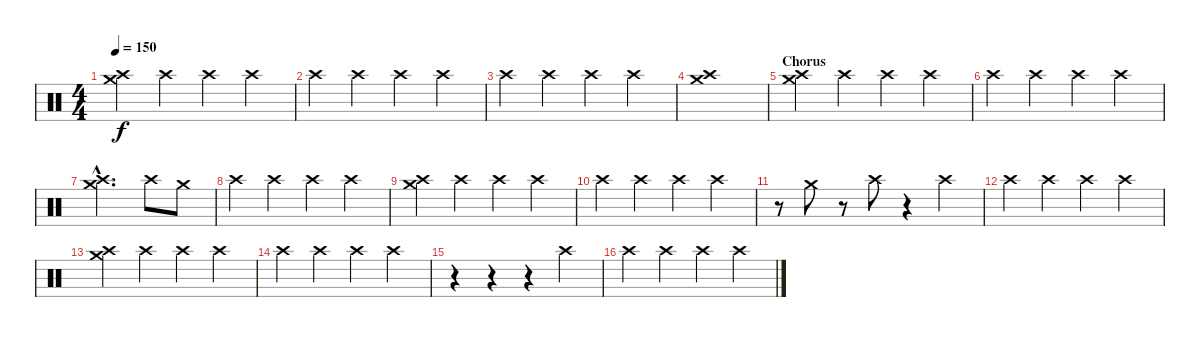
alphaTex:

\track "" {instrument percussion}
\staff {score}
\articulation defaults
\ts (4 4)
\tempo 150
\clef neutral
\ks c
("Crash medium (hit)" "Crash high (hit)").4{dy f} "Crash high (hit)".4 "Crash high (hit)".4 "Crash high (hit)".4 |
"Crash high (hit)".4 "Crash high (hit)".4 "Crash high (hit)".4 "Crash high (hit)".4 |
"Crash high (hit)".4 "Crash high (hit)".4 "Crash high (hit)".4 "Crash high (hit)".4 |
("Crash medium (hit)" "Crash high (hit)").1 |
\section ("" "Chorus")
("Crash medium (hit)" "Crash high (hit)").4 "Crash high (hit)".4 "Crash high (hit)".4 "Crash high (hit)".4 |
"Crash high (hit)".4 "Crash high (hit)".4 "Crash high (hit)".4 "Crash high (hit)".4 |
("Crash medium (hit)"{hac} "Crash high (hit)"{hac}).2{d} "Crash high (hit)".8 "Crash medium (hit)".8 |
"Crash high (hit)".4 "Crash high (hit)".4 "Crash high (hit)".4 "Crash high (hit)".4 |
("Crash medium (hit)" "Crash high (hit)").4 "Crash high (hit)".4 "Crash high (hit)".4 "Crash high (hit)".4 |
"Crash high (hit)".4 "Crash high (hit)".4 "Crash high (hit)".4 "Crash high (hit)".4 |
r.8 "Crash medium (hit)".8 r.8 "Crash high (hit)".8 r.4 "Crash high (hit)".4 |
"Crash high (hit)".4 "Crash high (hit)".4 "Crash high (hit)".4 "Crash high (hit)".4 |
("Crash medium (hit)" "Crash high (hit)").4 "Crash high (hit)".4 "Crash high (hit)".4 "Crash high (hit)".4 |
"Crash high (hit)".4 "Crash high (hit)".4 "Crash high (hit)".4 "Crash high (hit)".4 |
r.4 r.4 r.4 "Crash high (hit)".4 |
"Crash high (hit)".4 "Crash high (hit)".4 "Crash high (hit)".4 "Crash high (hit)".4
